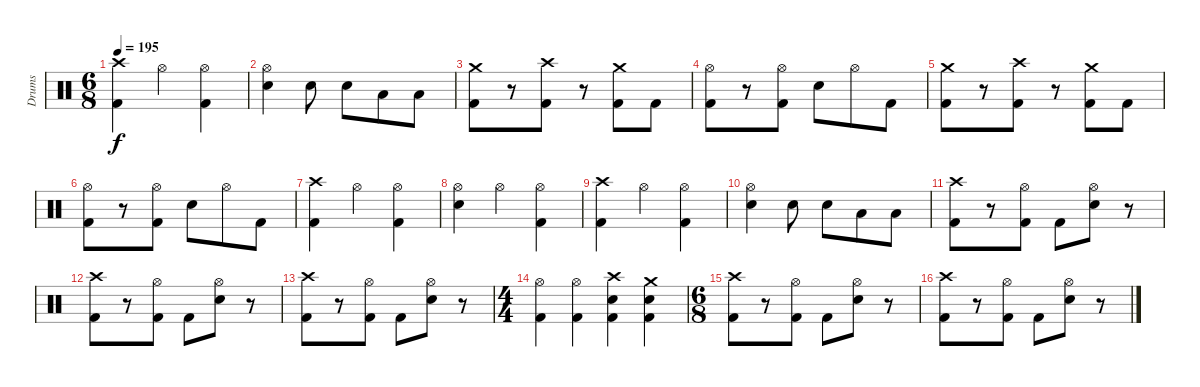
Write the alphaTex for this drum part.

\track ("Drums" "Drums") {instrument percussion}
\staff {score}
\articulation defaults
\ts (6 8)
\tempo 195
\clef neutral
\ks c
("Crash high (hit)" "Kick (hit) 2").4{dy f} "Hi-Hat (open)".4 ("Hi-Hat (open)" "Kick (hit) 2").4 |
("Hi-Hat (open)" "Electric Snare (hit)").4 "Electric Snare (hit)".8 "Electric Snare (hit)".8 "Low Tom (hit)".8 "Low Tom (hit)".8 |
("Crash medium (hit)" "Kick (hit) 2").8 r.8 ("Crash high (hit)" "Kick (hit) 2").8 r.8 ("Crash medium (hit)" "Kick (hit) 2").8 "Kick (hit) 2".8 |
("Hi-Hat (open)" "Kick (hit) 2").8 r.8 ("Hi-Hat (open)" "Kick (hit) 2").8 "Electric Snare (hit)".8 "Hi-Hat (open)".8 "Kick (hit) 2".8 |
("Crash medium (hit)" "Kick (hit) 2").8 r.8 ("Crash high (hit)" "Kick (hit) 2").8 r.8 ("Crash medium (hit)" "Kick (hit) 2").8 "Kick (hit) 2".8 |
("Hi-Hat (open)" "Kick (hit) 2").8 r.8 ("Hi-Hat (open)" "Kick (hit) 2").8 "Electric Snare (hit)".8 "Hi-Hat (open)".8 "Kick (hit) 2".8 |
("Crash high (hit)" "Kick (hit) 2").4 "Hi-Hat (open)".4 ("Hi-Hat (open)" "Kick (hit) 2").4 |
("Hi-Hat (open)" "Electric Snare (hit)").4 "Hi-Hat (open)".4 ("Hi-Hat (open)" "Kick (hit) 2").4 |
("Crash high (hit)" "Kick (hit) 2").4 "Hi-Hat (open)".4 ("Hi-Hat (open)" "Kick (hit) 2").4 |
("Hi-Hat (open)" "Electric Snare (hit)").4 "Electric Snare (hit)".8 "Electric Snare (hit)".8 "Low Tom (hit)".8 "Low Tom (hit)".8 |
("Crash high (hit)" "Kick (hit) 2").8 r.8 ("Hi-Hat (open)" "Kick (hit) 2").8 "Kick (hit) 2".8 ("Hi-Hat (open)" "Electric Snare (hit)").8 r.8 |
("Crash high (hit)" "Kick (hit) 2").8 r.8 ("Hi-Hat (open)" "Kick (hit) 2").8 "Kick (hit) 2".8 ("Hi-Hat (open)" "Electric Snare (hit)").8 r.8 |
("Crash high (hit)" "Kick (hit) 2").8 r.8 ("Hi-Hat (open)" "Kick (hit) 2").8 "Kick (hit) 2".8 ("Hi-Hat (open)" "Electric Snare (hit)").8 r.8 |
\ts (4 4)
("Hi-Hat (open)" "Kick (hit) 2").4 ("Hi-Hat (open)" "Kick (hit) 2").4 ("Crash high (hit)" "Electric Snare (hit)" "Kick (hit) 2").4 ("Crash medium (hit)" "Electric Snare (hit)" "Kick (hit) 2").4 |
\ts (6 8)
("Crash high (hit)" "Kick (hit) 2").8 r.8 ("Hi-Hat (open)" "Kick (hit) 2").8 "Kick (hit) 2".8 ("Hi-Hat (open)" "Electric Snare (hit)").8 r.8 |
("Crash high (hit)" "Kick (hit) 2").8 r.8 ("Hi-Hat (open)" "Kick (hit) 2").8 "Kick (hit) 2".8 ("Hi-Hat (open)" "Electric Snare (hit)").8 r.8
